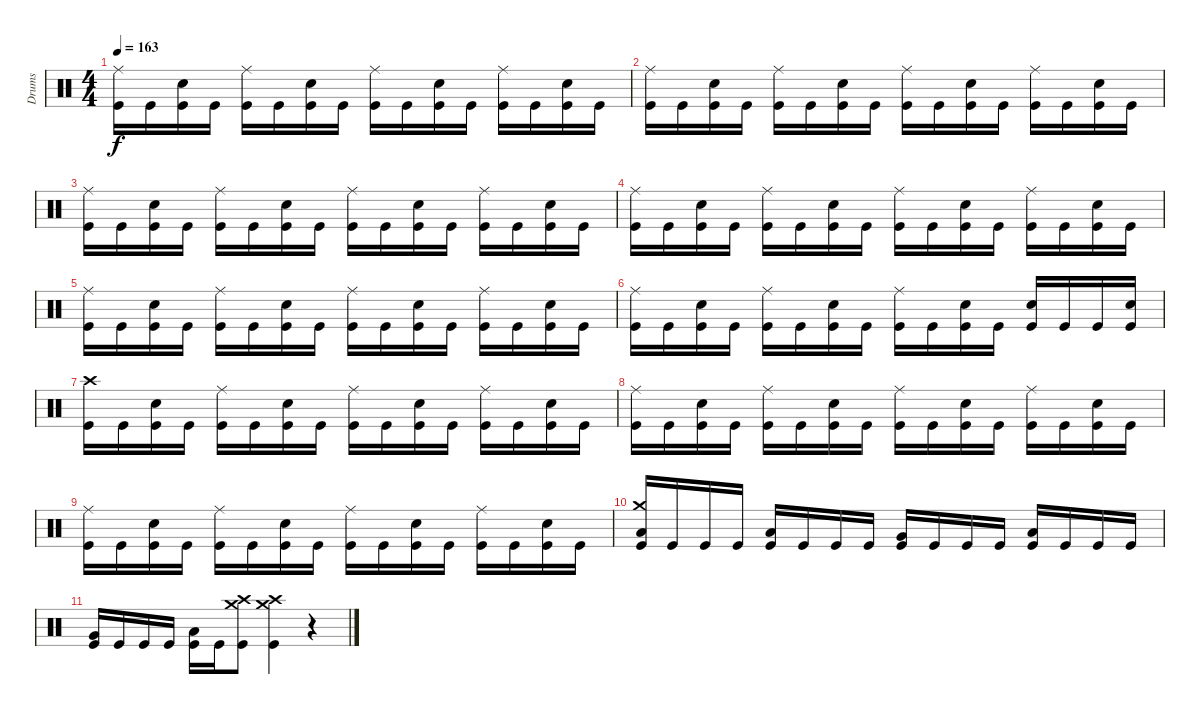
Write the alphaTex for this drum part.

\track ("Drums" "Drums") {instrument percussion}
\staff {score}
\articulation defaults
\ts (4 4)
\tempo 163
\clef neutral
\ks c
("Ride (middle)" "Kick (hit)").16{dy f} "Kick (hit)".16 ("Electric Snare (hit)" "Kick (hit)").16 "Kick (hit)".16 ("Ride (middle)" "Kick (hit)").16 "Kick (hit)".16 ("Electric Snare (hit)" "Kick (hit)").16 "Kick (hit)".16 ("Ride (middle)" "Kick (hit)").16 "Kick (hit)".16 ("Electric Snare (hit)" "Kick (hit)").16 "Kick (hit)".16 ("Ride (middle)" "Kick (hit)").16 "Kick (hit)".16 ("Electric Snare (hit)" "Kick (hit)").16 "Kick (hit)".16 |
("Ride (middle)" "Kick (hit)").16 "Kick (hit)".16 ("Electric Snare (hit)" "Kick (hit)").16 "Kick (hit)".16 ("Ride (middle)" "Kick (hit)").16 "Kick (hit)".16 ("Electric Snare (hit)" "Kick (hit)").16 "Kick (hit)".16 ("Ride (middle)" "Kick (hit)").16 "Kick (hit)".16 ("Electric Snare (hit)" "Kick (hit)").16 "Kick (hit)".16 ("Ride (middle)" "Kick (hit)").16 "Kick (hit)".16 ("Electric Snare (hit)" "Kick (hit)").16 "Kick (hit)".16 |
("Ride (middle)" "Kick (hit)").16 "Kick (hit)".16 ("Electric Snare (hit)" "Kick (hit)").16 "Kick (hit)".16 ("Ride (middle)" "Kick (hit)").16 "Kick (hit)".16 ("Electric Snare (hit)" "Kick (hit)").16 "Kick (hit)".16 ("Ride (middle)" "Kick (hit)").16 "Kick (hit)".16 ("Electric Snare (hit)" "Kick (hit)").16 "Kick (hit)".16 ("Ride (middle)" "Kick (hit)").16 "Kick (hit)".16 ("Electric Snare (hit)" "Kick (hit)").16 "Kick (hit)".16 |
("Ride (middle)" "Kick (hit)").16 "Kick (hit)".16 ("Electric Snare (hit)" "Kick (hit)").16 "Kick (hit)".16 ("Ride (middle)" "Kick (hit)").16 "Kick (hit)".16 ("Electric Snare (hit)" "Kick (hit)").16 "Kick (hit)".16 ("Ride (middle)" "Kick (hit)").16 "Kick (hit)".16 ("Electric Snare (hit)" "Kick (hit)").16 "Kick (hit)".16 ("Ride (middle)" "Kick (hit)").16 "Kick (hit)".16 ("Electric Snare (hit)" "Kick (hit)").16 "Kick (hit)".16 |
("Ride (middle)" "Kick (hit)").16 "Kick (hit)".16 ("Electric Snare (hit)" "Kick (hit)").16 "Kick (hit)".16 ("Ride (middle)" "Kick (hit)").16 "Kick (hit)".16 ("Electric Snare (hit)" "Kick (hit)").16 "Kick (hit)".16 ("Ride (middle)" "Kick (hit)").16 "Kick (hit)".16 ("Electric Snare (hit)" "Kick (hit)").16 "Kick (hit)".16 ("Ride (middle)" "Kick (hit)").16 "Kick (hit)".16 ("Electric Snare (hit)" "Kick (hit)").16 "Kick (hit)".16 |
("Ride (middle)" "Kick (hit)").16 "Kick (hit)".16 ("Electric Snare (hit)" "Kick (hit)").16 "Kick (hit)".16 ("Ride (middle)" "Kick (hit)").16 "Kick (hit)".16 ("Electric Snare (hit)" "Kick (hit)").16 "Kick (hit)".16 ("Ride (middle)" "Kick (hit)").16 "Kick (hit)".16 ("Electric Snare (hit)" "Kick (hit)").16 "Kick (hit)".16 ("Electric Snare (hit)" "Kick (hit)").16 "Kick (hit)".16 "Kick (hit)".16 ("Electric Snare (hit)" "Kick (hit)").16 |
("Crash high (hit)" "Kick (hit)").16 "Kick (hit)".16 ("Electric Snare (hit)" "Kick (hit)").16 "Kick (hit)".16 ("Ride (middle)" "Kick (hit)").16 "Kick (hit)".16 ("Electric Snare (hit)" "Kick (hit)").16 "Kick (hit)".16 ("Ride (middle)" "Kick (hit)").16 "Kick (hit)".16 ("Electric Snare (hit)" "Kick (hit)").16 "Kick (hit)".16 ("Ride (middle)" "Kick (hit)").16 "Kick (hit)".16 ("Electric Snare (hit)" "Kick (hit)").16 "Kick (hit)".16 |
("Ride (middle)" "Kick (hit)").16 "Kick (hit)".16 ("Electric Snare (hit)" "Kick (hit)").16 "Kick (hit)".16 ("Ride (middle)" "Kick (hit)").16 "Kick (hit)".16 ("Electric Snare (hit)" "Kick (hit)").16 "Kick (hit)".16 ("Ride (middle)" "Kick (hit)").16 "Kick (hit)".16 ("Electric Snare (hit)" "Kick (hit)").16 "Kick (hit)".16 ("Ride (middle)" "Kick (hit)").16 "Kick (hit)".16 ("Electric Snare (hit)" "Kick (hit)").16 "Kick (hit)".16 |
("Ride (middle)" "Kick (hit)").16 "Kick (hit)".16 ("Electric Snare (hit)" "Kick (hit)").16 "Kick (hit)".16 ("Ride (middle)" "Kick (hit)").16 "Kick (hit)".16 ("Electric Snare (hit)" "Kick (hit)").16 "Kick (hit)".16 ("Ride (middle)" "Kick (hit)").16 "Kick (hit)".16 ("Electric Snare (hit)" "Kick (hit)").16 "Kick (hit)".16 ("Ride (middle)" "Kick (hit)").16 "Kick (hit)".16 ("Electric Snare (hit)" "Kick (hit)").16 "Kick (hit)".16 |
("Crash medium (hit)" "Low Tom (hit)" "Kick (hit)").16 "Kick (hit)".16 "Kick (hit)".16 "Kick (hit)".16 ("Low Tom (hit)" "Kick (hit)").16 "Kick (hit)".16 "Kick (hit)".16 "Kick (hit)".16 ("Very Low Tom (hit)" "Kick (hit)").16 "Kick (hit)".16 "Kick (hit)".16 "Kick (hit)".16 ("Low Floor Tom (hit)" "Kick (hit)").16 "Kick (hit)".16 "Kick (hit)".16 "Kick (hit)".16 |
("Very Low Tom (hit)" "Kick (hit)").16 "Kick (hit)".16 "Kick (hit)".16 "Kick (hit)".16 ("Low Floor Tom (hit)" "Kick (hit)").16{volume 14 balance 8} "Kick (hit)".16 ("Crash high (hit)" "Crash medium (hit)" "Kick (hit)").8 ("Kick (hit)" "Crash high (hit)" "Crash medium (hit)").4 r.4
